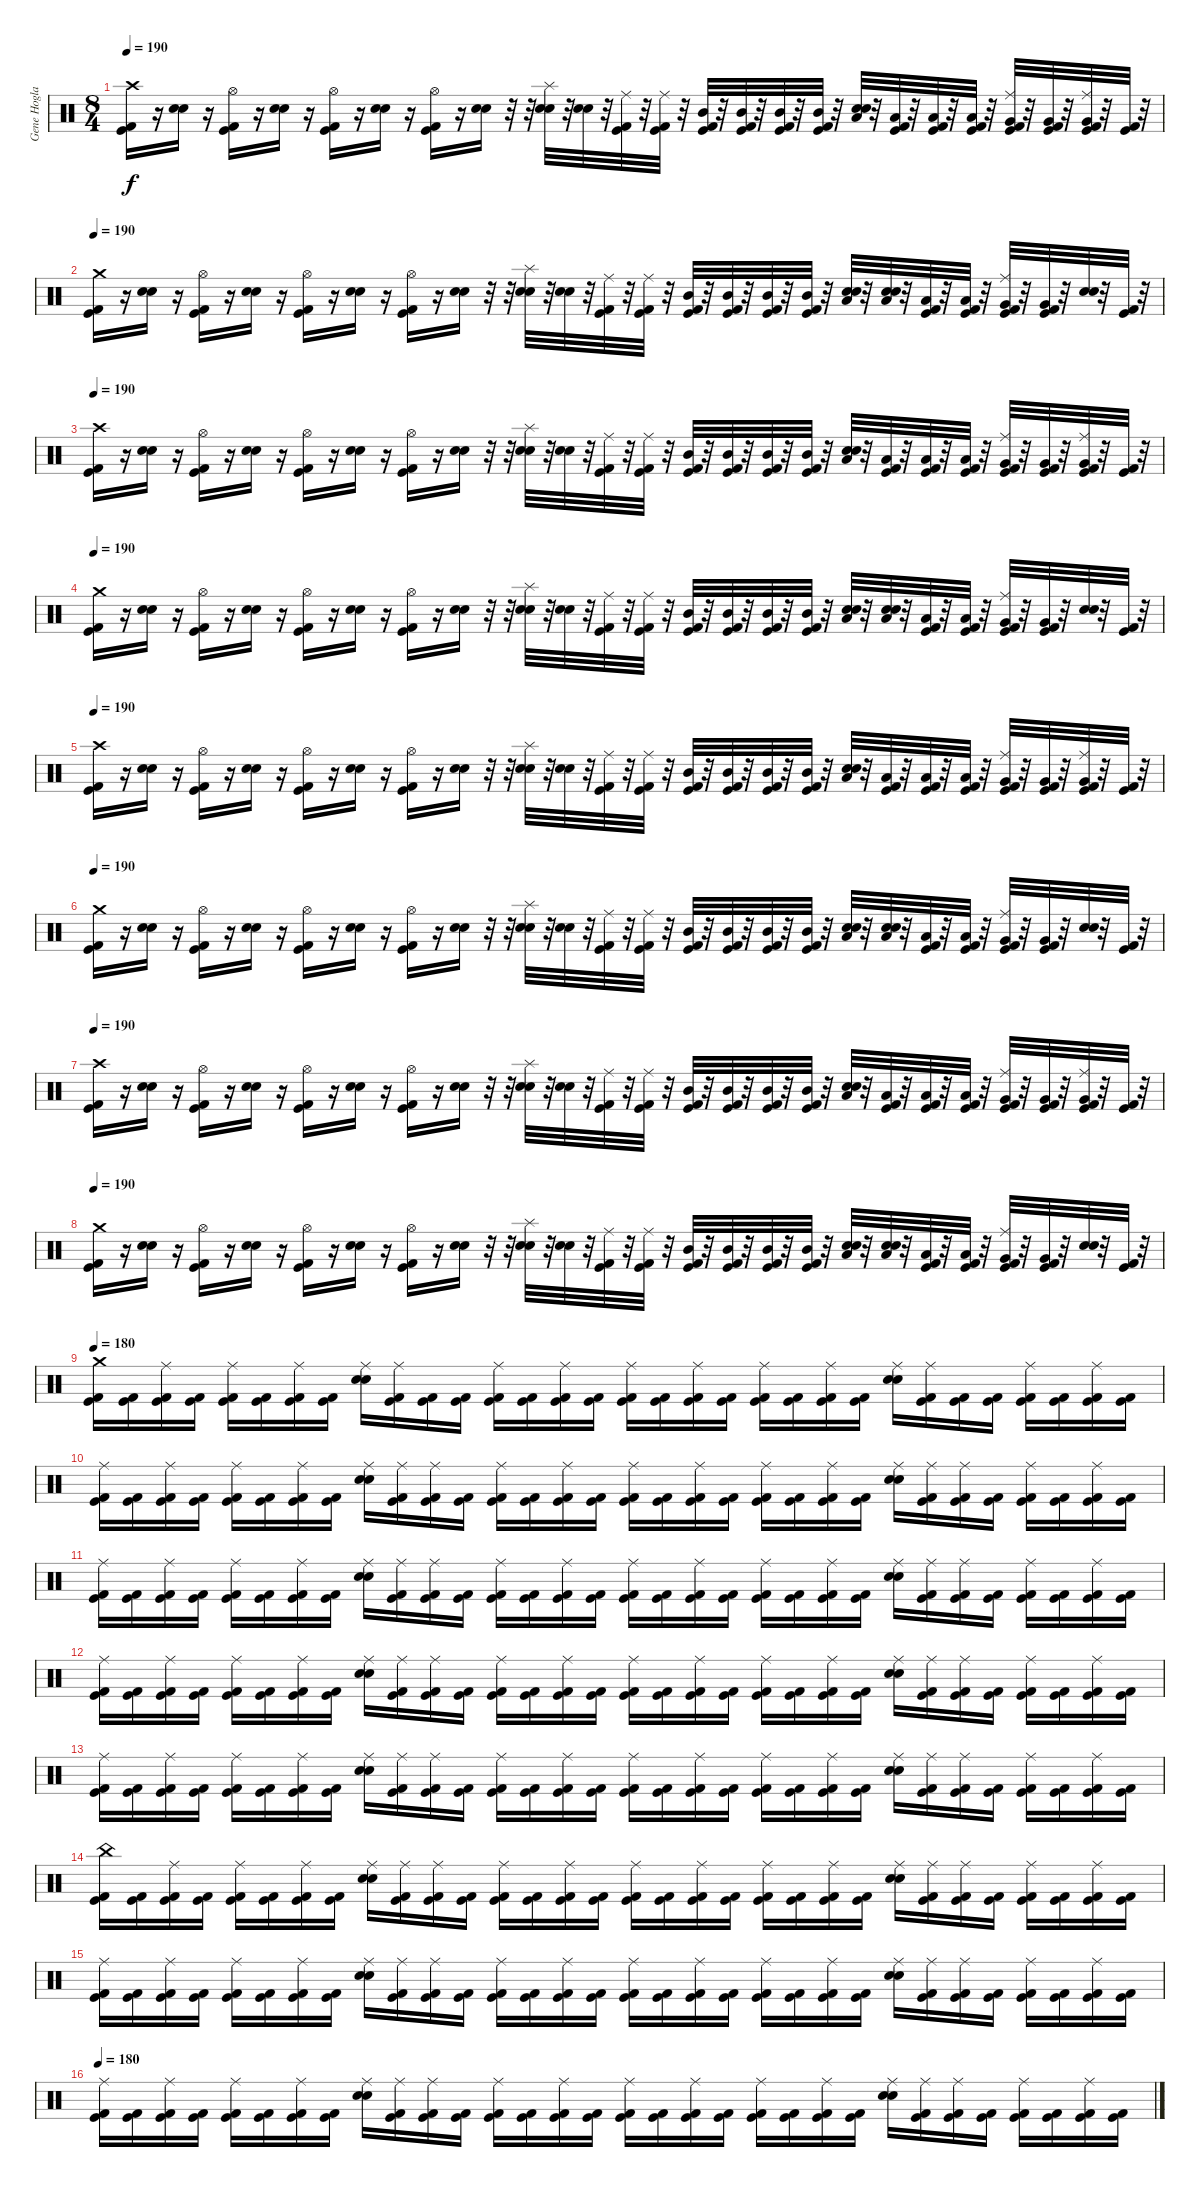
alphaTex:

\track ("Gene Hoglan" "Gene Hogla") {instrument percussion}
\staff {score}
\articulation defaults
\ts (8 4)
\tempo 190
\clef neutral
\ks c
("Crash high (hit)" "Kick (hit) 2" "Kick (hit)").16{dy f} r.16 ("Snare (hit) 2" "Electric Snare (hit)").16 r.16 ("Hi-Hat (open)" "Kick (hit) 2" "Kick (hit)").16 r.16 ("Snare (hit) 2" "Electric Snare (hit)").16 r.16 ("Hi-Hat (open)" "Kick (hit) 2" "Kick (hit)").16 r.16 ("Snare (hit) 2" "Electric Snare (hit)").16 r.16 ("Hi-Hat (open)" "Kick (hit) 2" "Kick (hit)").16 r.16 ("Snare (hit) 2" "Electric Snare (hit)").16 r.32 r.32 ("Splash (hit)" "Snare (hit) 2" "Electric Snare (hit)").32 r.32 ("Snare (hit) 2" "Electric Snare (hit)").32 r.32 ("Ride (middle)" "Kick (hit) 2" "Kick (hit)").32 r.32 ("Ride (middle)" "Kick (hit) 2" "Kick (hit)").32 r.32 ("Mid Tom (hit)" "Kick (hit) 2" "Kick (hit)").32 r.32 ("Mid Tom (hit)" "Kick (hit) 2" "Kick (hit)").32 r.32 ("Mid Tom (hit)" "Kick (hit) 2" "Kick (hit)").32 r.32 ("Mid Tom (hit)" "Kick (hit) 2" "Kick (hit)").32 r.32 ("Low Tom (hit)" "Snare (hit) 2" "Electric Snare (hit)").32 r.32 ("Low Tom (hit)" "Kick (hit) 2" "Kick (hit)").32 r.32 ("Low Tom (hit)" "Kick (hit) 2" "Kick (hit)").32 r.32 ("Low Tom (hit)" "Kick (hit) 2" "Kick (hit)").32 r.32 ("Ride (middle)" "Very Low Tom (hit)" "Kick (hit) 2" "Kick (hit)").32 r.32 ("Very Low Tom (hit)" "Kick (hit) 2" "Kick (hit)").32 r.32 ("Ride (middle)" "Very Low Tom (hit)" "Kick (hit) 2" "Kick (hit)").32 r.32 ("Kick (hit) 2" "Kick (hit)").32 r.32 |
\tempo 190
("Crash medium (hit)" "Kick (hit) 2" "Kick (hit)").16 r.16 ("Snare (hit) 2" "Electric Snare (hit)").16 r.16 ("Hi-Hat (open)" "Kick (hit) 2" "Kick (hit)").16 r.16 ("Snare (hit) 2" "Electric Snare (hit)").16 r.16 ("Hi-Hat (open)" "Kick (hit) 2" "Kick (hit)").16 r.16 ("Snare (hit) 2" "Electric Snare (hit)").16 r.16 ("Hi-Hat (open)" "Kick (hit) 2" "Kick (hit)").16 r.16 ("Snare (hit) 2" "Electric Snare (hit)").16 r.32 r.32 ("Splash (hit)" "Snare (hit) 2" "Electric Snare (hit)").32 r.32 ("Snare (hit) 2" "Electric Snare (hit)").32 r.32 ("Ride (middle)" "Kick (hit) 2" "Kick (hit)").32 r.32 ("Ride (middle)" "Kick (hit) 2" "Kick (hit)").32 r.32 ("Mid Tom (hit)" "Kick (hit) 2" "Kick (hit)").32 r.32 ("Mid Tom (hit)" "Kick (hit) 2" "Kick (hit)").32 r.32 ("Mid Tom (hit)" "Kick (hit) 2" "Kick (hit)").32 r.32 ("Mid Tom (hit)" "Kick (hit) 2" "Kick (hit)").32 r.32 ("Low Tom (hit)" "Snare (hit) 2" "Electric Snare (hit)").32 r.32 ("Low Tom (hit)" "Snare (hit) 2" "Electric Snare (hit)").32 r.32 ("Low Tom (hit)" "Kick (hit) 2" "Kick (hit)").32 r.32 ("Low Tom (hit)" "Kick (hit) 2" "Kick (hit)").32 r.32 ("Ride (middle)" "Very Low Tom (hit)" "Kick (hit) 2" "Kick (hit)").32 r.32 ("Very Low Tom (hit)" "Kick (hit) 2" "Kick (hit)").32 r.32 ("Snare (hit) 2" "Electric Snare (hit)").32 r.32 ("Kick (hit) 2" "Kick (hit)").32 r.32 |
\tempo 190
("Crash high (hit)" "Kick (hit) 2" "Kick (hit)").16 r.16 ("Snare (hit) 2" "Electric Snare (hit)").16 r.16 ("Hi-Hat (open)" "Kick (hit) 2" "Kick (hit)").16 r.16 ("Snare (hit) 2" "Electric Snare (hit)").16 r.16 ("Hi-Hat (open)" "Kick (hit) 2" "Kick (hit)").16 r.16 ("Snare (hit) 2" "Electric Snare (hit)").16 r.16 ("Hi-Hat (open)" "Kick (hit) 2" "Kick (hit)").16 r.16 ("Snare (hit) 2" "Electric Snare (hit)").16 r.32 r.32 ("Splash (hit)" "Snare (hit) 2" "Electric Snare (hit)").32 r.32 ("Snare (hit) 2" "Electric Snare (hit)").32 r.32 ("Ride (middle)" "Kick (hit) 2" "Kick (hit)").32 r.32 ("Ride (middle)" "Kick (hit) 2" "Kick (hit)").32 r.32 ("Mid Tom (hit)" "Kick (hit) 2" "Kick (hit)").32 r.32 ("Mid Tom (hit)" "Kick (hit) 2" "Kick (hit)").32 r.32 ("Mid Tom (hit)" "Kick (hit) 2" "Kick (hit)").32 r.32 ("Mid Tom (hit)" "Kick (hit) 2" "Kick (hit)").32 r.32 ("Low Tom (hit)" "Snare (hit) 2" "Electric Snare (hit)").32 r.32 ("Low Tom (hit)" "Kick (hit) 2" "Kick (hit)").32 r.32 ("Low Tom (hit)" "Kick (hit) 2" "Kick (hit)").32 r.32 ("Low Tom (hit)" "Kick (hit) 2" "Kick (hit)").32 r.32 ("Ride (middle)" "Very Low Tom (hit)" "Kick (hit) 2" "Kick (hit)").32 r.32 ("Very Low Tom (hit)" "Kick (hit) 2" "Kick (hit)").32 r.32 ("Ride (middle)" "Very Low Tom (hit)" "Kick (hit) 2" "Kick (hit)").32 r.32 ("Kick (hit) 2" "Kick (hit)").32 r.32 |
\tempo 190
("Crash medium (hit)" "Kick (hit) 2" "Kick (hit)").16 r.16 ("Snare (hit) 2" "Electric Snare (hit)").16 r.16 ("Hi-Hat (open)" "Kick (hit) 2" "Kick (hit)").16 r.16 ("Snare (hit) 2" "Electric Snare (hit)").16 r.16 ("Hi-Hat (open)" "Kick (hit) 2" "Kick (hit)").16 r.16 ("Snare (hit) 2" "Electric Snare (hit)").16 r.16 ("Hi-Hat (open)" "Kick (hit) 2" "Kick (hit)").16 r.16 ("Snare (hit) 2" "Electric Snare (hit)").16 r.32 r.32 ("Splash (hit)" "Snare (hit) 2" "Electric Snare (hit)").32 r.32 ("Snare (hit) 2" "Electric Snare (hit)").32 r.32 ("Ride (middle)" "Kick (hit) 2" "Kick (hit)").32 r.32 ("Ride (middle)" "Kick (hit) 2" "Kick (hit)").32 r.32 ("Mid Tom (hit)" "Kick (hit) 2" "Kick (hit)").32 r.32 ("Mid Tom (hit)" "Kick (hit) 2" "Kick (hit)").32 r.32 ("Mid Tom (hit)" "Kick (hit) 2" "Kick (hit)").32 r.32 ("Mid Tom (hit)" "Kick (hit) 2" "Kick (hit)").32 r.32 ("Low Tom (hit)" "Snare (hit) 2" "Electric Snare (hit)").32 r.32 ("Low Tom (hit)" "Snare (hit) 2" "Electric Snare (hit)").32 r.32 ("Low Tom (hit)" "Kick (hit) 2" "Kick (hit)").32 r.32 ("Low Tom (hit)" "Kick (hit) 2" "Kick (hit)").32 r.32 ("Ride (middle)" "Very Low Tom (hit)" "Kick (hit) 2" "Kick (hit)").32 r.32 ("Very Low Tom (hit)" "Kick (hit) 2" "Kick (hit)").32 r.32 ("Snare (hit) 2" "Electric Snare (hit)").32 r.32 ("Kick (hit) 2" "Kick (hit)").32 r.32 |
\tempo 190
("Crash high (hit)" "Kick (hit) 2" "Kick (hit)").16 r.16 ("Snare (hit) 2" "Electric Snare (hit)").16 r.16 ("Hi-Hat (open)" "Kick (hit) 2" "Kick (hit)").16 r.16 ("Snare (hit) 2" "Electric Snare (hit)").16 r.16 ("Hi-Hat (open)" "Kick (hit) 2" "Kick (hit)").16 r.16 ("Snare (hit) 2" "Electric Snare (hit)").16 r.16 ("Hi-Hat (open)" "Kick (hit) 2" "Kick (hit)").16 r.16 ("Snare (hit) 2" "Electric Snare (hit)").16 r.32 r.32 ("Splash (hit)" "Snare (hit) 2" "Electric Snare (hit)").32 r.32 ("Snare (hit) 2" "Electric Snare (hit)").32 r.32 ("Ride (middle)" "Kick (hit) 2" "Kick (hit)").32 r.32 ("Ride (middle)" "Kick (hit) 2" "Kick (hit)").32 r.32 ("Mid Tom (hit)" "Kick (hit) 2" "Kick (hit)").32 r.32 ("Mid Tom (hit)" "Kick (hit) 2" "Kick (hit)").32 r.32 ("Mid Tom (hit)" "Kick (hit) 2" "Kick (hit)").32 r.32 ("Mid Tom (hit)" "Kick (hit) 2" "Kick (hit)").32 r.32 ("Low Tom (hit)" "Snare (hit) 2" "Electric Snare (hit)").32 r.32 ("Low Tom (hit)" "Kick (hit) 2" "Kick (hit)").32 r.32 ("Low Tom (hit)" "Kick (hit) 2" "Kick (hit)").32 r.32 ("Low Tom (hit)" "Kick (hit) 2" "Kick (hit)").32 r.32 ("Ride (middle)" "Very Low Tom (hit)" "Kick (hit) 2" "Kick (hit)").32 r.32 ("Very Low Tom (hit)" "Kick (hit) 2" "Kick (hit)").32 r.32 ("Ride (middle)" "Very Low Tom (hit)" "Kick (hit) 2" "Kick (hit)").32 r.32 ("Kick (hit) 2" "Kick (hit)").32 r.32 |
\tempo 190
("Crash medium (hit)" "Kick (hit) 2" "Kick (hit)").16 r.16 ("Snare (hit) 2" "Electric Snare (hit)").16 r.16 ("Hi-Hat (open)" "Kick (hit) 2" "Kick (hit)").16 r.16 ("Snare (hit) 2" "Electric Snare (hit)").16 r.16 ("Hi-Hat (open)" "Kick (hit) 2" "Kick (hit)").16 r.16 ("Snare (hit) 2" "Electric Snare (hit)").16 r.16 ("Hi-Hat (open)" "Kick (hit) 2" "Kick (hit)").16 r.16 ("Snare (hit) 2" "Electric Snare (hit)").16 r.32 r.32 ("Splash (hit)" "Snare (hit) 2" "Electric Snare (hit)").32 r.32 ("Snare (hit) 2" "Electric Snare (hit)").32 r.32 ("Ride (middle)" "Kick (hit) 2" "Kick (hit)").32 r.32 ("Ride (middle)" "Kick (hit) 2" "Kick (hit)").32 r.32 ("Mid Tom (hit)" "Kick (hit) 2" "Kick (hit)").32 r.32 ("Mid Tom (hit)" "Kick (hit) 2" "Kick (hit)").32 r.32 ("Mid Tom (hit)" "Kick (hit) 2" "Kick (hit)").32 r.32 ("Mid Tom (hit)" "Kick (hit) 2" "Kick (hit)").32 r.32 ("Low Tom (hit)" "Snare (hit) 2" "Electric Snare (hit)").32 r.32 ("Low Tom (hit)" "Snare (hit) 2" "Electric Snare (hit)").32 r.32 ("Low Tom (hit)" "Kick (hit) 2" "Kick (hit)").32 r.32 ("Low Tom (hit)" "Kick (hit) 2" "Kick (hit)").32 r.32 ("Ride (middle)" "Very Low Tom (hit)" "Kick (hit) 2" "Kick (hit)").32 r.32 ("Very Low Tom (hit)" "Kick (hit) 2" "Kick (hit)").32 r.32 ("Snare (hit) 2" "Electric Snare (hit)").32 r.32 ("Kick (hit) 2" "Kick (hit)").32 r.32 |
\tempo 190
("Crash high (hit)" "Kick (hit) 2" "Kick (hit)").16 r.16 ("Snare (hit) 2" "Electric Snare (hit)").16 r.16 ("Hi-Hat (open)" "Kick (hit) 2" "Kick (hit)").16 r.16 ("Snare (hit) 2" "Electric Snare (hit)").16 r.16 ("Hi-Hat (open)" "Kick (hit) 2" "Kick (hit)").16 r.16 ("Snare (hit) 2" "Electric Snare (hit)").16 r.16 ("Hi-Hat (open)" "Kick (hit) 2" "Kick (hit)").16 r.16 ("Snare (hit) 2" "Electric Snare (hit)").16 r.32 r.32 ("Splash (hit)" "Snare (hit) 2" "Electric Snare (hit)").32 r.32 ("Snare (hit) 2" "Electric Snare (hit)").32 r.32 ("Ride (middle)" "Kick (hit) 2" "Kick (hit)").32 r.32 ("Ride (middle)" "Kick (hit) 2" "Kick (hit)").32 r.32 ("Mid Tom (hit)" "Kick (hit) 2" "Kick (hit)").32 r.32 ("Mid Tom (hit)" "Kick (hit) 2" "Kick (hit)").32 r.32 ("Mid Tom (hit)" "Kick (hit) 2" "Kick (hit)").32 r.32 ("Mid Tom (hit)" "Kick (hit) 2" "Kick (hit)").32 r.32 ("Low Tom (hit)" "Snare (hit) 2" "Electric Snare (hit)").32 r.32 ("Low Tom (hit)" "Kick (hit) 2" "Kick (hit)").32 r.32 ("Low Tom (hit)" "Kick (hit) 2" "Kick (hit)").32 r.32 ("Low Tom (hit)" "Kick (hit) 2" "Kick (hit)").32 r.32 ("Ride (middle)" "Very Low Tom (hit)" "Kick (hit) 2" "Kick (hit)").32 r.32 ("Very Low Tom (hit)" "Kick (hit) 2" "Kick (hit)").32 r.32 ("Ride (middle)" "Very Low Tom (hit)" "Kick (hit) 2" "Kick (hit)").32 r.32 ("Kick (hit) 2" "Kick (hit)").32 r.32 |
\tempo 190
("Crash medium (hit)" "Kick (hit) 2" "Kick (hit)").16 r.16 ("Snare (hit) 2" "Electric Snare (hit)").16 r.16 ("Hi-Hat (open)" "Kick (hit) 2" "Kick (hit)").16 r.16 ("Snare (hit) 2" "Electric Snare (hit)").16 r.16 ("Hi-Hat (open)" "Kick (hit) 2" "Kick (hit)").16 r.16 ("Snare (hit) 2" "Electric Snare (hit)").16 r.16 ("Hi-Hat (open)" "Kick (hit) 2" "Kick (hit)").16 r.16 ("Snare (hit) 2" "Electric Snare (hit)").16 r.32 r.32 ("Splash (hit)" "Snare (hit) 2" "Electric Snare (hit)").32 r.32 ("Snare (hit) 2" "Electric Snare (hit)").32 r.32 ("Ride (middle)" "Kick (hit) 2" "Kick (hit)").32 r.32 ("Ride (middle)" "Kick (hit) 2" "Kick (hit)").32 r.32 ("Mid Tom (hit)" "Kick (hit) 2" "Kick (hit)").32 r.32 ("Mid Tom (hit)" "Kick (hit) 2" "Kick (hit)").32 r.32 ("Mid Tom (hit)" "Kick (hit) 2" "Kick (hit)").32 r.32 ("Mid Tom (hit)" "Kick (hit) 2" "Kick (hit)").32 r.32 ("Low Tom (hit)" "Snare (hit) 2" "Electric Snare (hit)").32 r.32 ("Low Tom (hit)" "Snare (hit) 2" "Electric Snare (hit)").32 r.32 ("Low Tom (hit)" "Kick (hit) 2" "Kick (hit)").32 r.32 ("Low Tom (hit)" "Kick (hit) 2" "Kick (hit)").32 r.32 ("Ride (middle)" "Very Low Tom (hit)" "Kick (hit) 2" "Kick (hit)").32 r.32 ("Very Low Tom (hit)" "Kick (hit) 2" "Kick (hit)").32 r.32 ("Snare (hit) 2" "Electric Snare (hit)").32 r.32 ("Kick (hit) 2" "Kick (hit)").32 r.32 |
\tempo 180
("Crash medium (hit)" "Kick (hit)" "Kick (hit) 2").16 ("Kick (hit)" "Kick (hit) 2").16 ("Ride (middle)" "Kick (hit)" "Kick (hit) 2").16 ("Kick (hit)" "Kick (hit) 2").16 ("Ride (middle)" "Kick (hit)" "Kick (hit) 2").16 ("Kick (hit)" "Kick (hit) 2").16 ("Ride (middle)" "Kick (hit)" "Kick (hit) 2").16 ("Kick (hit)" "Kick (hit) 2").16 ("Ride (middle)" "Snare (hit) 2" "Electric Snare (hit)").16 ("Ride (middle)" "Kick (hit)" "Kick (hit) 2").16 ("Kick (hit)" "Kick (hit) 2").16 ("Kick (hit)" "Kick (hit) 2").16 ("Ride (middle)" "Kick (hit)" "Kick (hit) 2").16 ("Kick (hit)" "Kick (hit) 2").16 ("Ride (middle)" "Kick (hit)" "Kick (hit) 2").16 ("Kick (hit)" "Kick (hit) 2").16 ("Ride (middle)" "Kick (hit)" "Kick (hit) 2").16 ("Kick (hit)" "Kick (hit) 2").16 ("Ride (middle)" "Kick (hit)" "Kick (hit) 2").16 ("Kick (hit)" "Kick (hit) 2").16 ("Ride (middle)" "Kick (hit)" "Kick (hit) 2").16 ("Kick (hit)" "Kick (hit) 2").16 ("Ride (middle)" "Kick (hit)" "Kick (hit) 2").16 ("Kick (hit)" "Kick (hit) 2").16 ("Ride (middle)" "Snare (hit) 2" "Electric Snare (hit)").16 ("Ride (middle)" "Kick (hit)" "Kick (hit) 2").16 ("Kick (hit)" "Kick (hit) 2").16 ("Kick (hit)" "Kick (hit) 2").16 ("Ride (middle)" "Kick (hit)" "Kick (hit) 2").16 ("Kick (hit)" "Kick (hit) 2").16 ("Ride (middle)" "Kick (hit)" "Kick (hit) 2").16 ("Kick (hit)" "Kick (hit) 2").16 |
("Ride (middle)" "Kick (hit)" "Kick (hit) 2").16 ("Kick (hit)" "Kick (hit) 2").16 ("Ride (middle)" "Kick (hit)" "Kick (hit) 2").16 ("Kick (hit)" "Kick (hit) 2").16 ("Ride (middle)" "Kick (hit)" "Kick (hit) 2").16 ("Kick (hit)" "Kick (hit) 2").16 ("Ride (middle)" "Kick (hit)" "Kick (hit) 2").16 ("Kick (hit)" "Kick (hit) 2").16 ("Ride (middle)" "Snare (hit) 2" "Electric Snare (hit)").16 ("Ride (middle)" "Kick (hit)" "Kick (hit) 2").16 ("Ride (middle)" "Kick (hit)" "Kick (hit) 2").16 ("Kick (hit)" "Kick (hit) 2").16 ("Ride (middle)" "Kick (hit)" "Kick (hit) 2").16 ("Kick (hit)" "Kick (hit) 2").16 ("Ride (middle)" "Kick (hit)" "Kick (hit) 2").16 ("Kick (hit)" "Kick (hit) 2").16 ("Ride (middle)" "Kick (hit)" "Kick (hit) 2").16 ("Kick (hit)" "Kick (hit) 2").16 ("Ride (middle)" "Kick (hit)" "Kick (hit) 2").16 ("Kick (hit)" "Kick (hit) 2").16 ("Ride (middle)" "Kick (hit)" "Kick (hit) 2").16 ("Kick (hit)" "Kick (hit) 2").16 ("Ride (middle)" "Kick (hit)" "Kick (hit) 2").16 ("Kick (hit)" "Kick (hit) 2").16 ("Ride (middle)" "Snare (hit) 2" "Electric Snare (hit)").16 ("Ride (middle)" "Kick (hit)" "Kick (hit) 2").16 ("Ride (middle)" "Kick (hit)" "Kick (hit) 2").16 ("Kick (hit)" "Kick (hit) 2").16 ("Ride (middle)" "Kick (hit)" "Kick (hit) 2").16 ("Kick (hit)" "Kick (hit) 2").16 ("Ride (middle)" "Kick (hit)" "Kick (hit) 2").16 ("Kick (hit)" "Kick (hit) 2").16 |
("Ride (middle)" "Kick (hit)" "Kick (hit) 2").16 ("Kick (hit)" "Kick (hit) 2").16 ("Ride (middle)" "Kick (hit)" "Kick (hit) 2").16 ("Kick (hit)" "Kick (hit) 2").16 ("Ride (middle)" "Kick (hit)" "Kick (hit) 2").16 ("Kick (hit)" "Kick (hit) 2").16 ("Ride (middle)" "Kick (hit)" "Kick (hit) 2").16 ("Kick (hit)" "Kick (hit) 2").16 ("Ride (middle)" "Snare (hit) 2" "Electric Snare (hit)").16 ("Ride (middle)" "Kick (hit)" "Kick (hit) 2").16 ("Ride (middle)" "Kick (hit)" "Kick (hit) 2").16 ("Kick (hit)" "Kick (hit) 2").16 ("Ride (middle)" "Kick (hit)" "Kick (hit) 2").16 ("Kick (hit)" "Kick (hit) 2").16 ("Ride (middle)" "Kick (hit)" "Kick (hit) 2").16 ("Kick (hit)" "Kick (hit) 2").16 ("Ride (middle)" "Kick (hit)" "Kick (hit) 2").16 ("Kick (hit)" "Kick (hit) 2").16 ("Ride (middle)" "Kick (hit)" "Kick (hit) 2").16 ("Kick (hit)" "Kick (hit) 2").16 ("Ride (middle)" "Kick (hit)" "Kick (hit) 2").16 ("Kick (hit)" "Kick (hit) 2").16 ("Ride (middle)" "Kick (hit)" "Kick (hit) 2").16 ("Kick (hit)" "Kick (hit) 2").16 ("Ride (middle)" "Snare (hit) 2" "Electric Snare (hit)").16 ("Ride (middle)" "Kick (hit)" "Kick (hit) 2").16 ("Ride (middle)" "Kick (hit)" "Kick (hit) 2").16 ("Kick (hit)" "Kick (hit) 2").16 ("Ride (middle)" "Kick (hit)" "Kick (hit) 2").16 ("Kick (hit)" "Kick (hit) 2").16 ("Ride (middle)" "Kick (hit)" "Kick (hit) 2").16 ("Kick (hit)" "Kick (hit) 2").16 |
("Ride (middle)" "Kick (hit)" "Kick (hit) 2").16 ("Kick (hit)" "Kick (hit) 2").16 ("Ride (middle)" "Kick (hit)" "Kick (hit) 2").16 ("Kick (hit)" "Kick (hit) 2").16 ("Ride (middle)" "Kick (hit)" "Kick (hit) 2").16 ("Kick (hit)" "Kick (hit) 2").16 ("Ride (middle)" "Kick (hit)" "Kick (hit) 2").16 ("Kick (hit)" "Kick (hit) 2").16 ("Ride (middle)" "Snare (hit) 2" "Electric Snare (hit)").16 ("Ride (middle)" "Kick (hit)" "Kick (hit) 2").16 ("Ride (middle)" "Kick (hit)" "Kick (hit) 2").16 ("Kick (hit)" "Kick (hit) 2").16 ("Ride (middle)" "Kick (hit)" "Kick (hit) 2").16 ("Kick (hit)" "Kick (hit) 2").16 ("Ride (middle)" "Kick (hit)" "Kick (hit) 2").16 ("Kick (hit)" "Kick (hit) 2").16 ("Ride (middle)" "Kick (hit)" "Kick (hit) 2").16 ("Kick (hit)" "Kick (hit) 2").16 ("Ride (middle)" "Kick (hit)" "Kick (hit) 2").16 ("Kick (hit)" "Kick (hit) 2").16 ("Ride (middle)" "Kick (hit)" "Kick (hit) 2").16 ("Kick (hit)" "Kick (hit) 2").16 ("Ride (middle)" "Kick (hit)" "Kick (hit) 2").16 ("Kick (hit)" "Kick (hit) 2").16 ("Ride (middle)" "Snare (hit) 2" "Electric Snare (hit)").16 ("Ride (middle)" "Kick (hit)" "Kick (hit) 2").16 ("Ride (middle)" "Kick (hit)" "Kick (hit) 2").16 ("Kick (hit)" "Kick (hit) 2").16 ("Ride (middle)" "Kick (hit)" "Kick (hit) 2").16 ("Kick (hit)" "Kick (hit) 2").16 ("Ride (middle)" "Kick (hit)" "Kick (hit) 2").16 ("Kick (hit)" "Kick (hit) 2").16 |
("Ride (middle)" "Kick (hit)" "Kick (hit) 2").16 ("Kick (hit)" "Kick (hit) 2").16 ("Ride (middle)" "Kick (hit)" "Kick (hit) 2").16 ("Kick (hit)" "Kick (hit) 2").16 ("Ride (middle)" "Kick (hit)" "Kick (hit) 2").16 ("Kick (hit)" "Kick (hit) 2").16 ("Ride (middle)" "Kick (hit)" "Kick (hit) 2").16 ("Kick (hit)" "Kick (hit) 2").16 ("Ride (middle)" "Snare (hit) 2" "Electric Snare (hit)").16 ("Ride (middle)" "Kick (hit)" "Kick (hit) 2").16 ("Ride (middle)" "Kick (hit)" "Kick (hit) 2").16 ("Kick (hit)" "Kick (hit) 2").16 ("Ride (middle)" "Kick (hit)" "Kick (hit) 2").16 ("Kick (hit)" "Kick (hit) 2").16 ("Ride (middle)" "Kick (hit)" "Kick (hit) 2").16 ("Kick (hit)" "Kick (hit) 2").16 ("Ride (middle)" "Kick (hit)" "Kick (hit) 2").16 ("Kick (hit)" "Kick (hit) 2").16 ("Ride (middle)" "Kick (hit)" "Kick (hit) 2").16 ("Kick (hit)" "Kick (hit) 2").16 ("Ride (middle)" "Kick (hit)" "Kick (hit) 2").16 ("Kick (hit)" "Kick (hit) 2").16 ("Ride (middle)" "Kick (hit)" "Kick (hit) 2").16 ("Kick (hit)" "Kick (hit) 2").16 ("Ride (middle)" "Snare (hit) 2" "Electric Snare (hit)").16 ("Ride (middle)" "Kick (hit)" "Kick (hit) 2").16 ("Ride (middle)" "Kick (hit)" "Kick (hit) 2").16 ("Kick (hit)" "Kick (hit) 2").16 ("Ride (middle)" "Kick (hit)" "Kick (hit) 2").16 ("Kick (hit)" "Kick (hit) 2").16 ("Ride (middle)" "Kick (hit)" "Kick (hit) 2").16 ("Kick (hit)" "Kick (hit) 2").16 |
("China (hit)" "Kick (hit)" "Kick (hit) 2").16 ("Kick (hit)" "Kick (hit) 2").16 ("Ride (middle)" "Kick (hit)" "Kick (hit) 2").16 ("Kick (hit)" "Kick (hit) 2").16 ("Ride (middle)" "Kick (hit)" "Kick (hit) 2").16 ("Kick (hit)" "Kick (hit) 2").16 ("Ride (middle)" "Kick (hit)" "Kick (hit) 2").16 ("Kick (hit)" "Kick (hit) 2").16 ("Ride (middle)" "Snare (hit) 2" "Electric Snare (hit)").16 ("Ride (middle)" "Kick (hit)" "Kick (hit) 2").16 ("Ride (middle)" "Kick (hit)" "Kick (hit) 2").16 ("Kick (hit)" "Kick (hit) 2").16 ("Ride (middle)" "Kick (hit)" "Kick (hit) 2").16 ("Kick (hit)" "Kick (hit) 2").16 ("Ride (middle)" "Kick (hit)" "Kick (hit) 2").16 ("Kick (hit)" "Kick (hit) 2").16 ("Ride (middle)" "Kick (hit)" "Kick (hit) 2").16 ("Kick (hit)" "Kick (hit) 2").16 ("Ride (middle)" "Kick (hit)" "Kick (hit) 2").16 ("Kick (hit)" "Kick (hit) 2").16 ("Ride (middle)" "Kick (hit)" "Kick (hit) 2").16 ("Kick (hit)" "Kick (hit) 2").16 ("Ride (middle)" "Kick (hit)" "Kick (hit) 2").16 ("Kick (hit)" "Kick (hit) 2").16 ("Ride (middle)" "Snare (hit) 2" "Electric Snare (hit)").16 ("Ride (middle)" "Kick (hit)" "Kick (hit) 2").16 ("Ride (middle)" "Kick (hit)" "Kick (hit) 2").16 ("Kick (hit)" "Kick (hit) 2").16 ("Ride (middle)" "Kick (hit)" "Kick (hit) 2").16 ("Kick (hit)" "Kick (hit) 2").16 ("Ride (middle)" "Kick (hit)" "Kick (hit) 2").16 ("Kick (hit)" "Kick (hit) 2").16 |
("Ride (middle)" "Kick (hit)" "Kick (hit) 2").16 ("Kick (hit)" "Kick (hit) 2").16 ("Ride (middle)" "Kick (hit)" "Kick (hit) 2").16 ("Kick (hit)" "Kick (hit) 2").16 ("Ride (middle)" "Kick (hit)" "Kick (hit) 2").16 ("Kick (hit)" "Kick (hit) 2").16 ("Ride (middle)" "Kick (hit)" "Kick (hit) 2").16 ("Kick (hit)" "Kick (hit) 2").16 ("Ride (middle)" "Snare (hit) 2" "Electric Snare (hit)").16 ("Ride (middle)" "Kick (hit)" "Kick (hit) 2").16 ("Ride (middle)" "Kick (hit)" "Kick (hit) 2").16 ("Kick (hit)" "Kick (hit) 2").16 ("Ride (middle)" "Kick (hit)" "Kick (hit) 2").16 ("Kick (hit)" "Kick (hit) 2").16 ("Ride (middle)" "Kick (hit)" "Kick (hit) 2").16 ("Kick (hit)" "Kick (hit) 2").16 ("Ride (middle)" "Kick (hit)" "Kick (hit) 2").16 ("Kick (hit)" "Kick (hit) 2").16 ("Ride (middle)" "Kick (hit)" "Kick (hit) 2").16 ("Kick (hit)" "Kick (hit) 2").16 ("Ride (middle)" "Kick (hit)" "Kick (hit) 2").16 ("Kick (hit)" "Kick (hit) 2").16 ("Ride (middle)" "Kick (hit)" "Kick (hit) 2").16 ("Kick (hit)" "Kick (hit) 2").16 ("Ride (middle)" "Snare (hit) 2" "Electric Snare (hit)").16 ("Ride (middle)" "Kick (hit)" "Kick (hit) 2").16 ("Ride (middle)" "Kick (hit)" "Kick (hit) 2").16 ("Kick (hit)" "Kick (hit) 2").16 ("Ride (middle)" "Kick (hit)" "Kick (hit) 2").16 ("Kick (hit)" "Kick (hit) 2").16 ("Ride (middle)" "Kick (hit)" "Kick (hit) 2").16 ("Kick (hit)" "Kick (hit) 2").16 |
\tempo 180
("Ride (middle)" "Kick (hit)" "Kick (hit) 2").16 ("Kick (hit)" "Kick (hit) 2").16 ("Ride (middle)" "Kick (hit)" "Kick (hit) 2").16 ("Kick (hit)" "Kick (hit) 2").16 ("Ride (middle)" "Kick (hit)" "Kick (hit) 2").16 ("Kick (hit)" "Kick (hit) 2").16 ("Ride (middle)" "Kick (hit)" "Kick (hit) 2").16 ("Kick (hit)" "Kick (hit) 2").16 ("Ride (middle)" "Snare (hit) 2" "Electric Snare (hit)").16 ("Ride (middle)" "Kick (hit)" "Kick (hit) 2").16 ("Ride (middle)" "Kick (hit)" "Kick (hit) 2").16 ("Kick (hit)" "Kick (hit) 2").16 ("Ride (middle)" "Kick (hit)" "Kick (hit) 2").16 ("Kick (hit)" "Kick (hit) 2").16 ("Ride (middle)" "Kick (hit)" "Kick (hit) 2").16 ("Kick (hit)" "Kick (hit) 2").16 ("Ride (middle)" "Kick (hit)" "Kick (hit) 2").16 ("Kick (hit)" "Kick (hit) 2").16 ("Ride (middle)" "Kick (hit)" "Kick (hit) 2").16 ("Kick (hit)" "Kick (hit) 2").16 ("Ride (middle)" "Kick (hit)" "Kick (hit) 2").16 ("Kick (hit)" "Kick (hit) 2").16 ("Ride (middle)" "Kick (hit)" "Kick (hit) 2").16 ("Kick (hit)" "Kick (hit) 2").16 ("Ride (middle)" "Snare (hit) 2" "Electric Snare (hit)").16 ("Ride (middle)" "Kick (hit)" "Kick (hit) 2").16 ("Ride (middle)" "Kick (hit)" "Kick (hit) 2").16 ("Kick (hit)" "Kick (hit) 2").16 ("Ride (middle)" "Kick (hit)" "Kick (hit) 2").16 ("Kick (hit)" "Kick (hit) 2").16 ("Ride (middle)" "Kick (hit)" "Kick (hit) 2").16 ("Kick (hit)" "Kick (hit) 2").16
